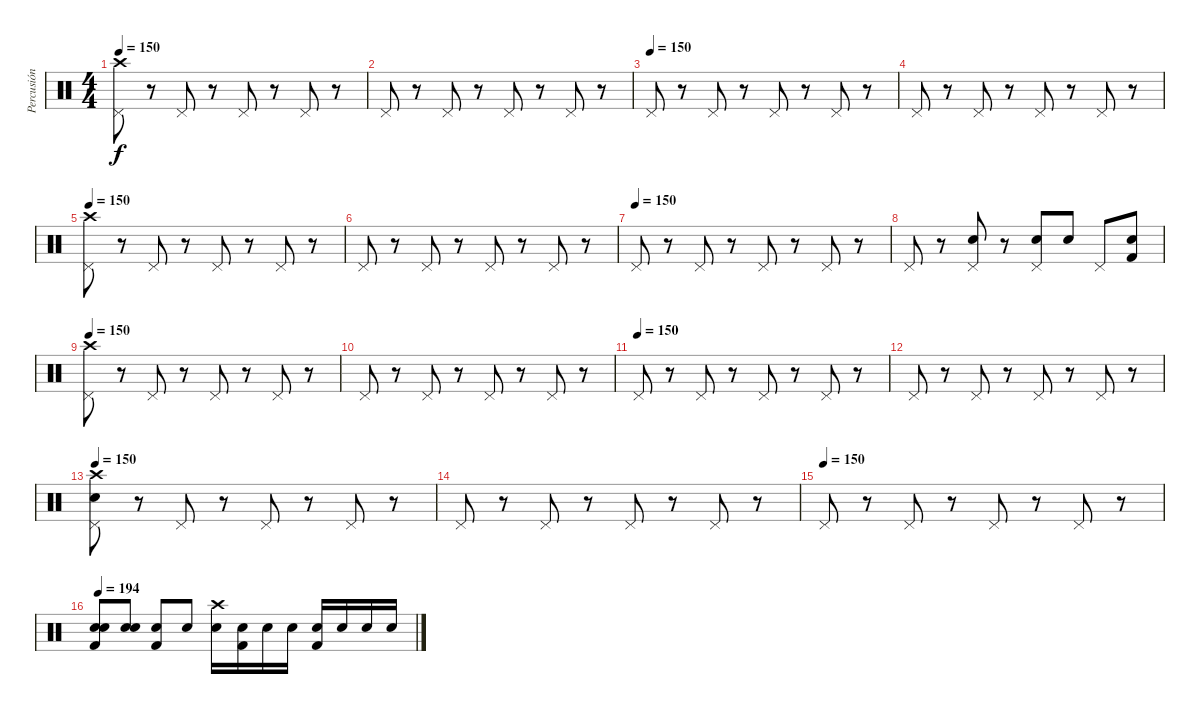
\track ("Percusión" "Percusión") {instrument percussion}
\staff {score}
\articulation defaults
\ts (4 4)
\tempo 150
\clef neutral
\ks c
("Crash high (hit)" "Pedal Hi-Hat (hit)").8{dy f} r.8 "Pedal Hi-Hat (hit)".8 r.8 "Pedal Hi-Hat (hit)".8 r.8 "Pedal Hi-Hat (hit)".8 r.8 |
"Pedal Hi-Hat (hit)".8 r.8 "Pedal Hi-Hat (hit)".8 r.8 "Pedal Hi-Hat (hit)".8 r.8 "Pedal Hi-Hat (hit)".8 r.8 |
\tempo (150)
"Pedal Hi-Hat (hit)".8 r.8 "Pedal Hi-Hat (hit)".8 r.8 "Pedal Hi-Hat (hit)".8 r.8 "Pedal Hi-Hat (hit)".8 r.8 |
"Pedal Hi-Hat (hit)".8 r.8 "Pedal Hi-Hat (hit)".8 r.8 "Pedal Hi-Hat (hit)".8 r.8 "Pedal Hi-Hat (hit)".8 r.8 |
\tempo 150
("Crash high (hit)" "Pedal Hi-Hat (hit)").8 r.8 "Pedal Hi-Hat (hit)".8 r.8 "Pedal Hi-Hat (hit)".8 r.8 "Pedal Hi-Hat (hit)".8 r.8 |
"Pedal Hi-Hat (hit)".8 r.8 "Pedal Hi-Hat (hit)".8 r.8 "Pedal Hi-Hat (hit)".8 r.8 "Pedal Hi-Hat (hit)".8 r.8 |
\tempo (150)
"Pedal Hi-Hat (hit)".8 r.8 "Pedal Hi-Hat (hit)".8 r.8 "Pedal Hi-Hat (hit)".8 r.8 "Pedal Hi-Hat (hit)".8 r.8 |
"Pedal Hi-Hat (hit)".8 r.8 ("Snare (hit) 2" "Pedal Hi-Hat (hit)").8 r.8 ("Snare (hit) 2" "Pedal Hi-Hat (hit)").8 "Snare (hit) 2".8 "Pedal Hi-Hat (hit)".8 ("Snare (hit) 2" "Kick (hit) 2").8 |
\tempo 150
("Crash high (hit)" "Pedal Hi-Hat (hit)").8 r.8 "Pedal Hi-Hat (hit)".8 r.8 "Pedal Hi-Hat (hit)".8 r.8 "Pedal Hi-Hat (hit)".8 r.8 |
"Pedal Hi-Hat (hit)".8 r.8 "Pedal Hi-Hat (hit)".8 r.8 "Pedal Hi-Hat (hit)".8 r.8 "Pedal Hi-Hat (hit)".8 r.8 |
\tempo (150)
"Pedal Hi-Hat (hit)".8 r.8 "Pedal Hi-Hat (hit)".8 r.8 "Pedal Hi-Hat (hit)".8 r.8 "Pedal Hi-Hat (hit)".8 r.8 |
"Pedal Hi-Hat (hit)".8 r.8 "Pedal Hi-Hat (hit)".8 r.8 "Pedal Hi-Hat (hit)".8 r.8 "Pedal Hi-Hat (hit)".8 r.8 |
\tempo 150
("Crash high (hit)" "Snare (hit) 2" "Pedal Hi-Hat (hit)").8 r.8 "Pedal Hi-Hat (hit)".8 r.8 "Pedal Hi-Hat (hit)".8 r.8 "Pedal Hi-Hat (hit)".8 r.8 |
"Pedal Hi-Hat (hit)".8 r.8 "Pedal Hi-Hat (hit)".8 r.8 "Pedal Hi-Hat (hit)".8 r.8 "Pedal Hi-Hat (hit)".8 r.8 |
\tempo (150)
"Pedal Hi-Hat (hit)".8 r.8 "Pedal Hi-Hat (hit)".8 r.8 "Pedal Hi-Hat (hit)".8 r.8 "Pedal Hi-Hat (hit)".8 r.8 |
\tempo 194
("Snare (hit) 2" "Snare (hit) 2" "Kick (hit) 2").8 ("Snare (hit) 2" "Snare (hit) 2").8 ("Snare (hit) 2" "Kick (hit) 2").8 "Snare (hit) 2".8 ("Crash high (hit)" "Snare (hit) 2").16 ("Snare (hit) 2" "Kick (hit) 2").16 "Snare (hit) 2".16 "Snare (hit) 2".16 ("Snare (hit) 2" "Kick (hit) 2").16 "Snare (hit) 2".16 "Snare (hit) 2".16 "Snare (hit) 2".16
